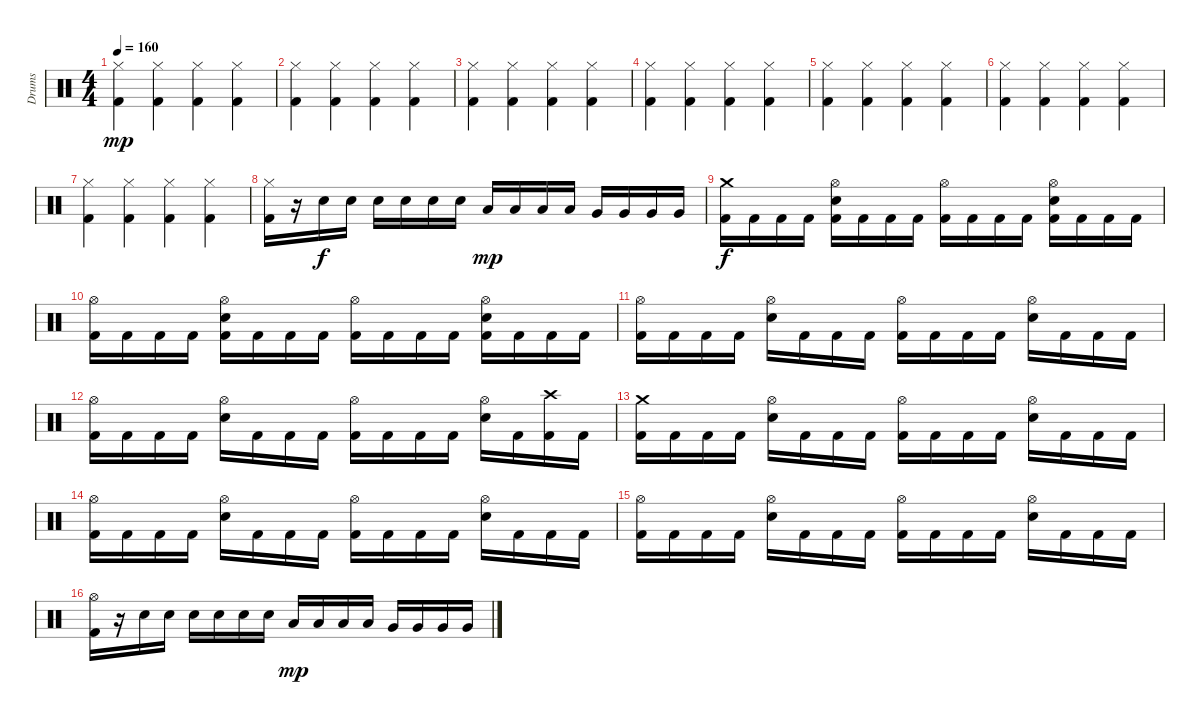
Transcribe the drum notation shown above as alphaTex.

\track ("Drums" "Drums") {instrument percussion}
\staff {score}
\articulation defaults
\ts (4 4)
\tempo 160
\clef neutral
\ks c
("Hi-Hat (closed)" "Kick (hit) 2").4{dy mp} ("Hi-Hat (closed)" "Kick (hit) 2").4 ("Hi-Hat (closed)" "Kick (hit) 2").4 ("Hi-Hat (closed)" "Kick (hit) 2").4 |
("Hi-Hat (closed)" "Kick (hit) 2").4 ("Hi-Hat (closed)" "Kick (hit) 2").4 ("Hi-Hat (closed)" "Kick (hit) 2").4 ("Hi-Hat (closed)" "Kick (hit) 2").4 |
("Hi-Hat (closed)" "Kick (hit) 2").4 ("Hi-Hat (closed)" "Kick (hit) 2").4 ("Hi-Hat (closed)" "Kick (hit) 2").4 ("Hi-Hat (closed)" "Kick (hit) 2").4 |
("Hi-Hat (closed)" "Kick (hit) 2").4 ("Hi-Hat (closed)" "Kick (hit) 2").4 ("Hi-Hat (closed)" "Kick (hit) 2").4 ("Hi-Hat (closed)" "Kick (hit) 2").4 |
("Hi-Hat (closed)" "Kick (hit) 2").4 ("Hi-Hat (closed)" "Kick (hit) 2").4 ("Hi-Hat (closed)" "Kick (hit) 2").4 ("Hi-Hat (closed)" "Kick (hit) 2").4 |
("Hi-Hat (closed)" "Kick (hit) 2").4 ("Hi-Hat (closed)" "Kick (hit) 2").4 ("Hi-Hat (closed)" "Kick (hit) 2").4 ("Hi-Hat (closed)" "Kick (hit) 2").4 |
("Hi-Hat (closed)" "Kick (hit) 2").4 ("Hi-Hat (closed)" "Kick (hit) 2").4 ("Hi-Hat (closed)" "Kick (hit) 2").4 ("Hi-Hat (closed)" "Kick (hit) 2").4 |
("Hi-Hat (closed)" "Kick (hit) 2").16 r.16 "Snare (hit) 2".16{dy f} "Snare (hit) 2".16 "Snare (hit) 2".16 "Snare (hit) 2".16 "Snare (hit) 2".16 "Snare (hit) 2".16 "Low Tom (hit)".16{dy mp} "Low Tom (hit)".16 "Low Tom (hit)".16 "Low Tom (hit)".16 "Very Low Tom (hit)".16 "Very Low Tom (hit)".16 "Very Low Tom (hit)".16 "Very Low Tom (hit)".16 |
("Crash medium (hit)" "Kick (hit) 2").16{dy f} "Kick (hit) 2".16 "Kick (hit) 2".16 "Kick (hit) 2".16 ("Hi-Hat (open)" "Snare (hit) 2" "Kick (hit) 2").16 "Kick (hit) 2".16 "Kick (hit) 2".16 "Kick (hit) 2".16 ("Hi-Hat (open)" "Kick (hit) 2").16 "Kick (hit) 2".16 "Kick (hit) 2".16 "Kick (hit) 2".16 ("Hi-Hat (open)" "Snare (hit) 2" "Kick (hit) 2").16 "Kick (hit) 2".16 "Kick (hit) 2".16 "Kick (hit) 2".16 |
("Hi-Hat (open)" "Kick (hit) 2").16 "Kick (hit) 2".16 "Kick (hit) 2".16 "Kick (hit) 2".16 ("Hi-Hat (open)" "Snare (hit) 2" "Kick (hit) 2").16 "Kick (hit) 2".16 "Kick (hit) 2".16 "Kick (hit) 2".16 ("Hi-Hat (open)" "Kick (hit) 2").16 "Kick (hit) 2".16 "Kick (hit) 2".16 "Kick (hit) 2".16 ("Hi-Hat (open)" "Snare (hit) 2" "Kick (hit) 2").16 "Kick (hit) 2".16 "Kick (hit) 2".16 "Kick (hit) 2".16 |
("Hi-Hat (open)" "Kick (hit) 2").16 "Kick (hit) 2".16 "Kick (hit) 2".16 "Kick (hit) 2".16 ("Hi-Hat (open)" "Snare (hit) 2").16 "Kick (hit) 2".16 "Kick (hit) 2".16 "Kick (hit) 2".16 ("Hi-Hat (open)" "Kick (hit) 2").16 "Kick (hit) 2".16 "Kick (hit) 2".16 "Kick (hit) 2".16 ("Hi-Hat (open)" "Snare (hit) 2").16 "Kick (hit) 2".16 "Kick (hit) 2".16 "Kick (hit) 2".16 |
("Hi-Hat (open)" "Kick (hit) 2").16 "Kick (hit) 2".16 "Kick (hit) 2".16 "Kick (hit) 2".16 ("Hi-Hat (open)" "Snare (hit) 2").16 "Kick (hit) 2".16 "Kick (hit) 2".16 "Kick (hit) 2".16 ("Hi-Hat (open)" "Kick (hit) 2").16 "Kick (hit) 2".16 "Kick (hit) 2".16 "Kick (hit) 2".16 ("Hi-Hat (open)" "Snare (hit) 2").16 "Kick (hit) 2".16 ("Crash high (hit)" "Kick (hit) 2").16 "Kick (hit) 2".16 |
("Crash medium (hit)" "Kick (hit) 2").16 "Kick (hit) 2".16 "Kick (hit) 2".16 "Kick (hit) 2".16 ("Hi-Hat (open)" "Snare (hit) 2").16 "Kick (hit) 2".16 "Kick (hit) 2".16 "Kick (hit) 2".16 ("Hi-Hat (open)" "Kick (hit) 2").16 "Kick (hit) 2".16 "Kick (hit) 2".16 "Kick (hit) 2".16 ("Hi-Hat (open)" "Snare (hit) 2").16 "Kick (hit) 2".16 "Kick (hit) 2".16 "Kick (hit) 2".16 |
("Hi-Hat (open)" "Kick (hit) 2").16 "Kick (hit) 2".16 "Kick (hit) 2".16 "Kick (hit) 2".16 ("Hi-Hat (open)" "Snare (hit) 2").16 "Kick (hit) 2".16 "Kick (hit) 2".16 "Kick (hit) 2".16 ("Hi-Hat (open)" "Kick (hit) 2").16 "Kick (hit) 2".16 "Kick (hit) 2".16 "Kick (hit) 2".16 ("Hi-Hat (open)" "Snare (hit) 2").16 "Kick (hit) 2".16 "Kick (hit) 2".16 "Kick (hit) 2".16 |
("Hi-Hat (open)" "Kick (hit) 2").16 "Kick (hit) 2".16 "Kick (hit) 2".16 "Kick (hit) 2".16 ("Hi-Hat (open)" "Snare (hit) 2").16 "Kick (hit) 2".16 "Kick (hit) 2".16 "Kick (hit) 2".16 ("Hi-Hat (open)" "Kick (hit) 2").16 "Kick (hit) 2".16 "Kick (hit) 2".16 "Kick (hit) 2".16 ("Hi-Hat (open)" "Snare (hit) 2").16 "Kick (hit) 2".16 "Kick (hit) 2".16 "Kick (hit) 2".16 |
("Hi-Hat (open)" "Kick (hit) 2").16 r.16 "Snare (hit) 2".16 "Snare (hit) 2".16 "Snare (hit) 2".16 "Snare (hit) 2".16 "Snare (hit) 2".16 "Snare (hit) 2".16 "Low Tom (hit)".16{dy mp} "Low Tom (hit)".16 "Low Tom (hit)".16 "Low Tom (hit)".16 "Very Low Tom (hit)".16 "Very Low Tom (hit)".16 "Very Low Tom (hit)".16 "Very Low Tom (hit)".16
